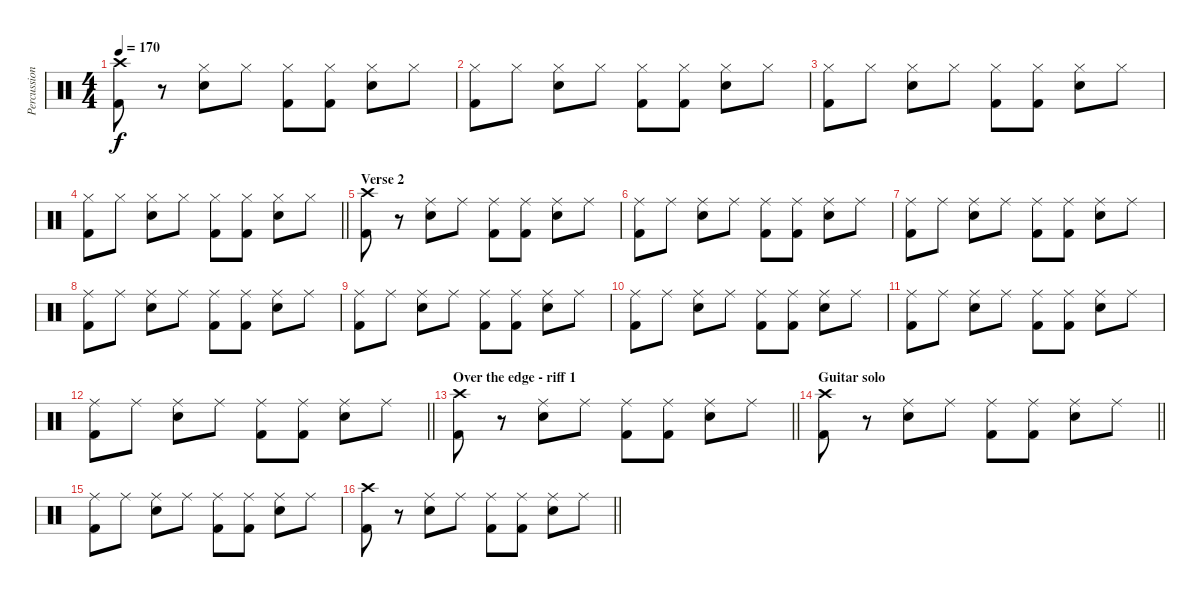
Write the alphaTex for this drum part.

\track ("Percussion" "Percussion") {instrument percussion}
\staff {score}
\articulation defaults
\ts (4 4)
\tempo 170
\clef neutral
\ks c
("Crash high (hit)" "Kick (hit) 2").8{dy f} r.8 ("Hi-Hat (closed)" "Snare (hit) 2").8 "Hi-Hat (closed)".8 ("Hi-Hat (closed)" "Kick (hit) 2").8 ("Hi-Hat (closed)" "Kick (hit) 2").8 ("Hi-Hat (closed)" "Snare (hit) 2").8 "Hi-Hat (closed)".8 |
("Hi-Hat (closed)" "Kick (hit) 2").8 "Hi-Hat (closed)".8 ("Hi-Hat (closed)" "Snare (hit) 2").8 "Hi-Hat (closed)".8 ("Hi-Hat (closed)" "Kick (hit) 2").8 ("Hi-Hat (closed)" "Kick (hit) 2").8 ("Hi-Hat (closed)" "Snare (hit) 2").8 "Hi-Hat (closed)".8 |
("Hi-Hat (closed)" "Kick (hit) 2").8 "Hi-Hat (closed)".8 ("Hi-Hat (closed)" "Snare (hit) 2").8 "Hi-Hat (closed)".8 ("Hi-Hat (closed)" "Kick (hit) 2").8 ("Hi-Hat (closed)" "Kick (hit) 2").8 ("Hi-Hat (closed)" "Snare (hit) 2").8 "Hi-Hat (closed)".8 |
\barLineRight lightlight
("Hi-Hat (closed)" "Kick (hit) 2").8 "Hi-Hat (closed)".8 ("Hi-Hat (closed)" "Snare (hit) 2").8 "Hi-Hat (closed)".8 ("Hi-Hat (closed)" "Kick (hit) 2").8 ("Hi-Hat (closed)" "Kick (hit) 2").8 ("Hi-Hat (closed)" "Snare (hit) 2").8 "Hi-Hat (closed)".8 |
\section ("" "Verse 2")
("Crash high (hit)" "Kick (hit) 2").8 r.8 ("Ride (middle)" "Snare (hit) 2").8 "Ride (middle)".8 ("Ride (middle)" "Kick (hit) 2").8 ("Ride (middle)" "Kick (hit) 2").8 ("Ride (middle)" "Snare (hit) 2").8 "Ride (middle)".8 |
("Ride (middle)" "Kick (hit) 2").8 "Ride (middle)".8 ("Ride (middle)" "Snare (hit) 2").8 "Ride (middle)".8 ("Ride (middle)" "Kick (hit) 2").8 ("Ride (middle)" "Kick (hit) 2").8 ("Ride (middle)" "Snare (hit) 2").8 "Ride (middle)".8 |
("Ride (middle)" "Kick (hit) 2").8 "Ride (middle)".8 ("Ride (middle)" "Snare (hit) 2").8 "Ride (middle)".8 ("Ride (middle)" "Kick (hit) 2").8 ("Ride (middle)" "Kick (hit) 2").8 ("Ride (middle)" "Snare (hit) 2").8 "Ride (middle)".8 |
("Ride (middle)" "Kick (hit) 2").8 "Ride (middle)".8 ("Ride (middle)" "Snare (hit) 2").8 "Ride (middle)".8 ("Ride (middle)" "Kick (hit) 2").8 ("Ride (middle)" "Kick (hit) 2").8 ("Ride (middle)" "Snare (hit) 2").8 "Ride (middle)".8 |
("Ride (middle)" "Kick (hit) 2").8 "Ride (middle)".8 ("Ride (middle)" "Snare (hit) 2").8 "Ride (middle)".8 ("Ride (middle)" "Kick (hit) 2").8 ("Ride (middle)" "Kick (hit) 2").8 ("Ride (middle)" "Snare (hit) 2").8 "Ride (middle)".8 |
("Ride (middle)" "Kick (hit) 2").8 "Ride (middle)".8 ("Ride (middle)" "Snare (hit) 2").8 "Ride (middle)".8 ("Ride (middle)" "Kick (hit) 2").8 ("Ride (middle)" "Kick (hit) 2").8 ("Ride (middle)" "Snare (hit) 2").8 "Ride (middle)".8 |
("Ride (middle)" "Kick (hit) 2").8 "Ride (middle)".8 ("Ride (middle)" "Snare (hit) 2").8 "Ride (middle)".8 ("Ride (middle)" "Kick (hit) 2").8 ("Ride (middle)" "Kick (hit) 2").8 ("Ride (middle)" "Snare (hit) 2").8 "Ride (middle)".8 |
\barLineRight lightlight
("Ride (middle)" "Kick (hit) 2").8 "Ride (middle)".8 ("Ride (middle)" "Snare (hit) 2").8 "Ride (middle)".8 ("Ride (middle)" "Kick (hit) 2").8 ("Ride (middle)" "Kick (hit) 2").8 ("Ride (middle)" "Snare (hit) 2").8 "Ride (middle)".8 |
\section ("" "Over the edge - riff 1")
\barLineRight lightlight
("Crash high (hit)" "Kick (hit) 2").8 r.8 ("Ride (middle)" "Snare (hit) 2").8 "Ride (middle)".8 ("Ride (middle)" "Kick (hit) 2").8 ("Ride (middle)" "Kick (hit) 2").8 ("Ride (middle)" "Snare (hit) 2").8 "Ride (middle)".8 |
\section ("" "Guitar solo")
\barLineRight lightlight
("Crash high (hit)" "Kick (hit) 2").8 r.8 ("Ride (middle)" "Snare (hit) 2").8 "Ride (middle)".8 ("Ride (middle)" "Kick (hit) 2").8 ("Ride (middle)" "Kick (hit) 2").8 ("Ride (middle)" "Snare (hit) 2").8 "Ride (middle)".8 |
("Ride (middle)" "Kick (hit) 2").8 "Ride (middle)".8 ("Ride (middle)" "Snare (hit) 2").8 "Ride (middle)".8 ("Ride (middle)" "Kick (hit) 2").8 ("Ride (middle)" "Kick (hit) 2").8 ("Ride (middle)" "Snare (hit) 2").8 "Ride (middle)".8 |
\barLineRight lightlight
("Crash high (hit)" "Kick (hit) 2").8 r.8 ("Ride (middle)" "Snare (hit) 2").8 "Ride (middle)".8 ("Ride (middle)" "Kick (hit) 2").8 ("Ride (middle)" "Kick (hit) 2").8 ("Ride (middle)" "Snare (hit) 2").8 "Ride (middle)".8
